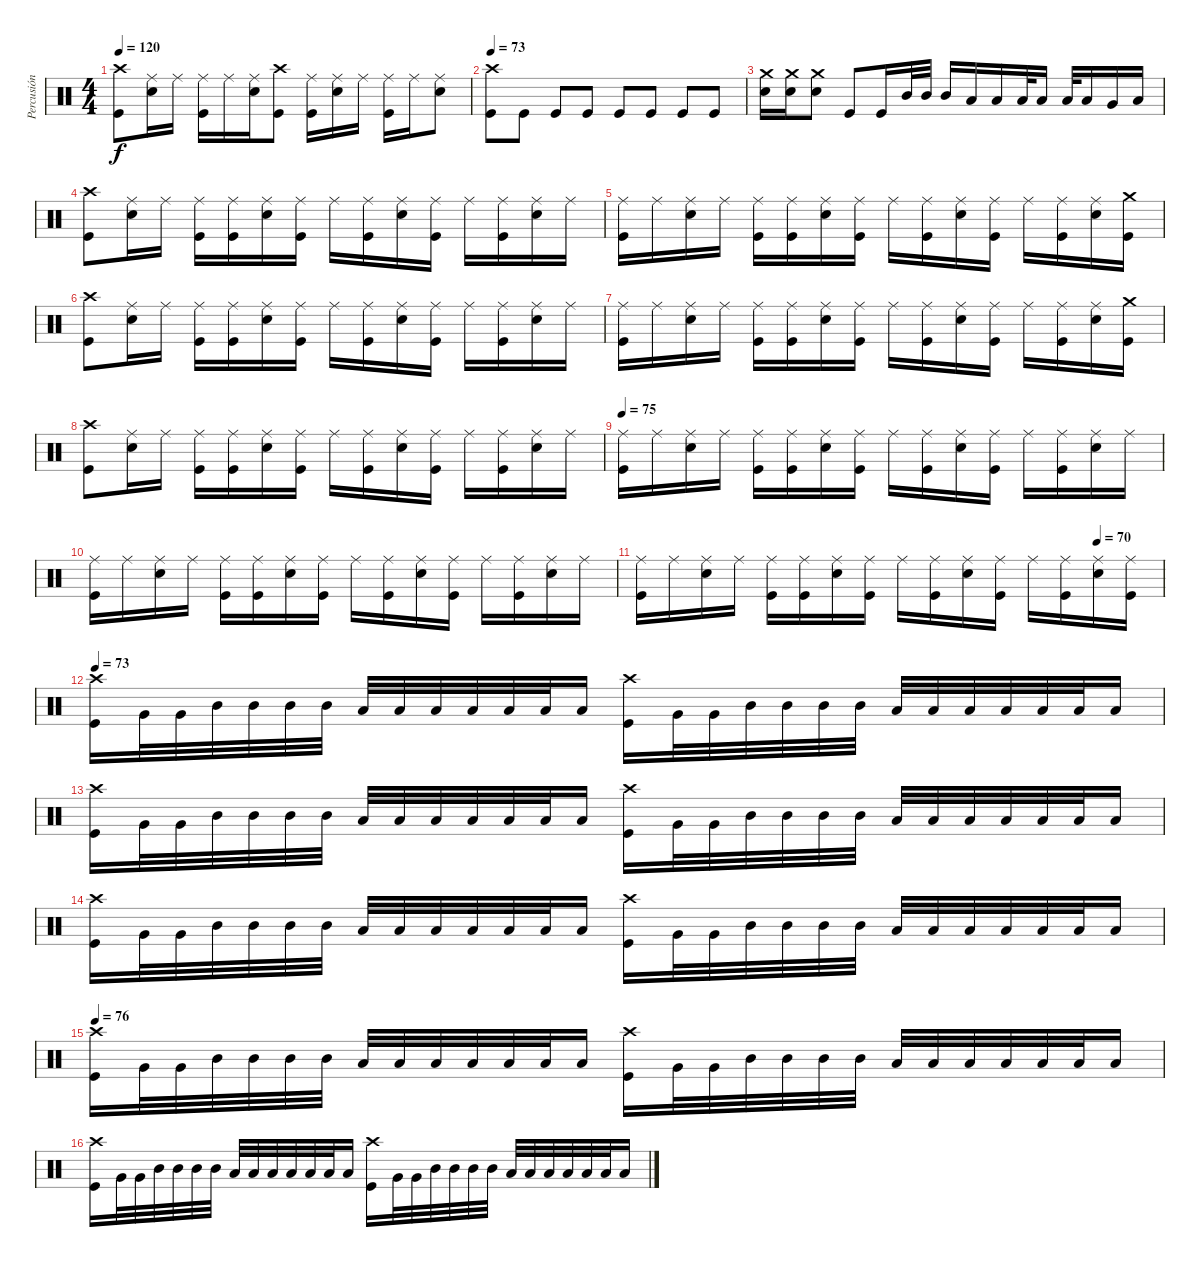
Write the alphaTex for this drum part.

\track ("Percusión" "Percusión") {instrument percussion}
\staff {score}
\articulation defaults
\ts (4 4)
\tempo 120
\clef neutral
\ks c
("Kick (hit)" "Crash high (hit)").8{dy f} ("Snare (hit) 2" "Ride (middle)").16 "Ride (middle)".16 ("Kick (hit)" "Ride (middle)").16 "Ride (middle)".16 ("Snare (hit) 2" "Ride (middle)").16 ("Kick (hit)" "Crash high (hit)").8 ("Kick (hit)" "Ride (middle)").16 ("Snare (hit) 2" "Ride (middle)").16 "Ride (middle)".16 ("Kick (hit)" "Ride (middle)").16 "Ride (middle)".16 ("Snare (hit) 2" "Ride (middle)").8 |
\tempo 73
("Kick (hit)" "Crash high (hit)").8 "Kick (hit)".8 "Kick (hit)".8 "Kick (hit)".8 "Kick (hit)".8 "Kick (hit)".8 "Kick (hit)".8 "Kick (hit)".8 |
("Snare (hit) 2" "Crash medium (hit)").16 ("Snare (hit) 2" "Crash medium (hit)").16 ("Snare (hit) 2" "Crash medium (hit)").8 "Kick (hit)".8 "Kick (hit)".16 "Mid Tom (hit)".32 "Mid Tom (hit)".32 "Mid Tom (hit)".16 "Low Tom (hit)".16 "Low Tom (hit)".16 "Low Tom (hit)".32 "Low Tom (hit)".16 "Low Tom (hit)".32 "Low Tom (hit)".16 "Very Low Tom (hit)".16 "Low Floor Tom (hit)".16 |
("Kick (hit)" "Crash high (hit)").8 ("Snare (hit) 2" "Ride (middle)").16 "Ride (middle)".16 ("Kick (hit)" "Ride (middle)").16 ("Kick (hit)" "Ride (middle)").16 ("Snare (hit) 2" "Ride (middle)").16 ("Kick (hit)" "Ride (middle)").16 "Ride (middle)".16 ("Kick (hit)" "Ride (middle)").16 ("Snare (hit) 2" "Ride (middle)").16 ("Kick (hit)" "Ride (middle)").16 "Ride (middle)".16 ("Kick (hit)" "Ride (middle)").16 ("Snare (hit) 2" "Ride (middle)").16 "Ride (middle)".16 |
("Kick (hit)" "Ride (middle)").16 "Ride (middle)".16 ("Snare (hit) 2" "Ride (middle)").16 "Ride (middle)".16 ("Kick (hit)" "Ride (middle)").16 ("Kick (hit)" "Ride (middle)").16 ("Snare (hit) 2" "Ride (middle)").16 ("Kick (hit)" "Ride (middle)").16 "Ride (middle)".16 ("Kick (hit)" "Ride (middle)").16 ("Snare (hit) 2" "Ride (middle)").16 ("Kick (hit)" "Ride (middle)").16 "Ride (middle)".16 ("Kick (hit)" "Ride (middle)").16 ("Snare (hit) 2" "Ride (middle)").16 ("Kick (hit)" "Crash medium (hit)").16 |
("Kick (hit)" "Crash high (hit)").8 ("Snare (hit) 2" "Ride (middle)").16 "Ride (middle)".16 ("Kick (hit)" "Ride (middle)").16 ("Kick (hit)" "Ride (middle)").16 ("Snare (hit) 2" "Ride (middle)").16 ("Kick (hit)" "Ride (middle)").16 "Ride (middle)".16 ("Kick (hit)" "Ride (middle)").16 ("Snare (hit) 2" "Ride (middle)").16 ("Kick (hit)" "Ride (middle)").16 "Ride (middle)".16 ("Kick (hit)" "Ride (middle)").16 ("Snare (hit) 2" "Ride (middle)").16 "Ride (middle)".16 |
("Kick (hit)" "Ride (middle)").16 "Ride (middle)".16 ("Snare (hit) 2" "Ride (middle)").16 "Ride (middle)".16 ("Kick (hit)" "Ride (middle)").16 ("Kick (hit)" "Ride (middle)").16 ("Snare (hit) 2" "Ride (middle)").16 ("Kick (hit)" "Ride (middle)").16 "Ride (middle)".16 ("Kick (hit)" "Ride (middle)").16 ("Snare (hit) 2" "Ride (middle)").16 ("Kick (hit)" "Ride (middle)").16 "Ride (middle)".16 ("Kick (hit)" "Ride (middle)").16 ("Snare (hit) 2" "Ride (middle)").16 ("Kick (hit)" "Crash medium (hit)").16 |
("Kick (hit)" "Crash high (hit)").8 ("Snare (hit) 2" "Ride (middle)").16 "Ride (middle)".16 ("Kick (hit)" "Ride (middle)").16 ("Kick (hit)" "Ride (middle)").16 ("Snare (hit) 2" "Ride (middle)").16 ("Kick (hit)" "Ride (middle)").16 "Ride (middle)".16 ("Kick (hit)" "Ride (middle)").16 ("Snare (hit) 2" "Ride (middle)").16 ("Kick (hit)" "Ride (middle)").16 "Ride (middle)".16 ("Kick (hit)" "Ride (middle)").16 ("Snare (hit) 2" "Ride (middle)").16 "Ride (middle)".16 |
\tempo 75
("Kick (hit)" "Ride (middle)").16 "Ride (middle)".16 ("Snare (hit) 2" "Ride (middle)").16 "Ride (middle)".16 ("Kick (hit)" "Ride (middle)").16 ("Kick (hit)" "Ride (middle)").16 ("Snare (hit) 2" "Ride (middle)").16 ("Kick (hit)" "Ride (middle)").16 "Ride (middle)".16 ("Kick (hit)" "Ride (middle)").16 ("Snare (hit) 2" "Ride (middle)").16 ("Kick (hit)" "Ride (middle)").16 "Ride (middle)".16 ("Kick (hit)" "Ride (middle)").16 ("Snare (hit) 2" "Ride (middle)").16 "Ride (middle)".16 |
("Kick (hit)" "Ride (middle)").16 "Ride (middle)".16 ("Snare (hit) 2" "Ride (middle)").16 "Ride (middle)".16 ("Kick (hit)" "Ride (middle)").16 ("Kick (hit)" "Ride (middle)").16 ("Snare (hit) 2" "Ride (middle)").16 ("Kick (hit)" "Ride (middle)").16 "Ride (middle)".16 ("Kick (hit)" "Ride (middle)").16 ("Snare (hit) 2" "Ride (middle)").16 ("Kick (hit)" "Ride (middle)").16 "Ride (middle)".16 ("Kick (hit)" "Ride (middle)").16 ("Snare (hit) 2" "Ride (middle)").16 "Ride (middle)".16 |
\tempo (70 0.875)
("Kick (hit)" "Ride (middle)").16 "Ride (middle)".16 ("Snare (hit) 2" "Ride (middle)").16 "Ride (middle)".16 ("Kick (hit)" "Ride (middle)").16 ("Kick (hit)" "Ride (middle)").16 ("Snare (hit) 2" "Ride (middle)").16 ("Kick (hit)" "Ride (middle)").16 "Ride (middle)".16 ("Kick (hit)" "Ride (middle)").16 ("Snare (hit) 2" "Ride (middle)").16 ("Kick (hit)" "Ride (middle)").16 "Ride (middle)".16 ("Kick (hit)" "Ride (middle)").16 ("Snare (hit) 2" "Ride (middle)").16 ("Kick (hit)" "Ride (middle)").16 |
\tempo 73
("Kick (hit)" "Crash high (hit)").16 "Very Low Tom (hit)".32 "Very Low Tom (hit)".32 "Mid Tom (hit)".32 "Mid Tom (hit)".32 "Mid Tom (hit)".32 "Mid Tom (hit)".32 "Low Tom (hit)".32 "Low Tom (hit)".32 "Low Tom (hit)".32 "Low Tom (hit)".32 "Low Tom (hit)".32 "Low Tom (hit)".32 "Low Tom (hit)".16 ("Kick (hit)" "Crash high (hit)").16 "Very Low Tom (hit)".32 "Very Low Tom (hit)".32 "Mid Tom (hit)".32 "Mid Tom (hit)".32 "Mid Tom (hit)".32 "Mid Tom (hit)".32 "Low Tom (hit)".32 "Low Tom (hit)".32 "Low Tom (hit)".32 "Low Tom (hit)".32 "Low Tom (hit)".32 "Low Tom (hit)".32 "Low Tom (hit)".16 |
("Kick (hit)" "Crash high (hit)").16 "Very Low Tom (hit)".32 "Very Low Tom (hit)".32 "Mid Tom (hit)".32 "Mid Tom (hit)".32 "Mid Tom (hit)".32 "Mid Tom (hit)".32 "Low Tom (hit)".32 "Low Tom (hit)".32 "Low Tom (hit)".32 "Low Tom (hit)".32 "Low Tom (hit)".32 "Low Tom (hit)".32 "Low Tom (hit)".16 ("Kick (hit)" "Crash high (hit)").16 "Very Low Tom (hit)".32 "Very Low Tom (hit)".32 "Mid Tom (hit)".32 "Mid Tom (hit)".32 "Mid Tom (hit)".32 "Mid Tom (hit)".32 "Low Tom (hit)".32 "Low Tom (hit)".32 "Low Tom (hit)".32 "Low Tom (hit)".32 "Low Tom (hit)".32 "Low Tom (hit)".32 "Low Tom (hit)".16 |
("Kick (hit)" "Crash high (hit)").16 "Very Low Tom (hit)".32 "Very Low Tom (hit)".32 "Mid Tom (hit)".32 "Mid Tom (hit)".32 "Mid Tom (hit)".32 "Mid Tom (hit)".32 "Low Tom (hit)".32 "Low Tom (hit)".32 "Low Tom (hit)".32 "Low Tom (hit)".32 "Low Tom (hit)".32 "Low Tom (hit)".32 "Low Tom (hit)".16 ("Kick (hit)" "Crash high (hit)").16 "Very Low Tom (hit)".32 "Very Low Tom (hit)".32 "Mid Tom (hit)".32 "Mid Tom (hit)".32 "Mid Tom (hit)".32 "Mid Tom (hit)".32 "Low Tom (hit)".32 "Low Tom (hit)".32 "Low Tom (hit)".32 "Low Tom (hit)".32 "Low Tom (hit)".32 "Low Tom (hit)".32 "Low Tom (hit)".16 |
\tempo 76
("Kick (hit)" "Crash high (hit)").16 "Very Low Tom (hit)".32 "Very Low Tom (hit)".32 "Mid Tom (hit)".32 "Mid Tom (hit)".32 "Mid Tom (hit)".32 "Mid Tom (hit)".32 "Low Tom (hit)".32 "Low Tom (hit)".32 "Low Tom (hit)".32 "Low Tom (hit)".32 "Low Tom (hit)".32 "Low Tom (hit)".32 "Low Tom (hit)".16 ("Kick (hit)" "Crash high (hit)").16 "Very Low Tom (hit)".32 "Very Low Tom (hit)".32 "Mid Tom (hit)".32 "Mid Tom (hit)".32 "Mid Tom (hit)".32 "Mid Tom (hit)".32 "Low Tom (hit)".32 "Low Tom (hit)".32 "Low Tom (hit)".32 "Low Tom (hit)".32 "Low Tom (hit)".32 "Low Tom (hit)".32 "Low Tom (hit)".16 |
("Kick (hit)" "Crash high (hit)").16 "Very Low Tom (hit)".32 "Very Low Tom (hit)".32 "Mid Tom (hit)".32 "Mid Tom (hit)".32 "Mid Tom (hit)".32 "Mid Tom (hit)".32 "Low Tom (hit)".32 "Low Tom (hit)".32 "Low Tom (hit)".32 "Low Tom (hit)".32 "Low Tom (hit)".32 "Low Tom (hit)".32 "Low Tom (hit)".16 ("Kick (hit)" "Crash high (hit)").16 "Very Low Tom (hit)".32 "Very Low Tom (hit)".32 "Mid Tom (hit)".32 "Mid Tom (hit)".32 "Mid Tom (hit)".32 "Mid Tom (hit)".32 "Low Tom (hit)".32 "Low Tom (hit)".32 "Low Tom (hit)".32 "Low Tom (hit)".32 "Low Tom (hit)".32 "Low Tom (hit)".32 "Low Tom (hit)".16
